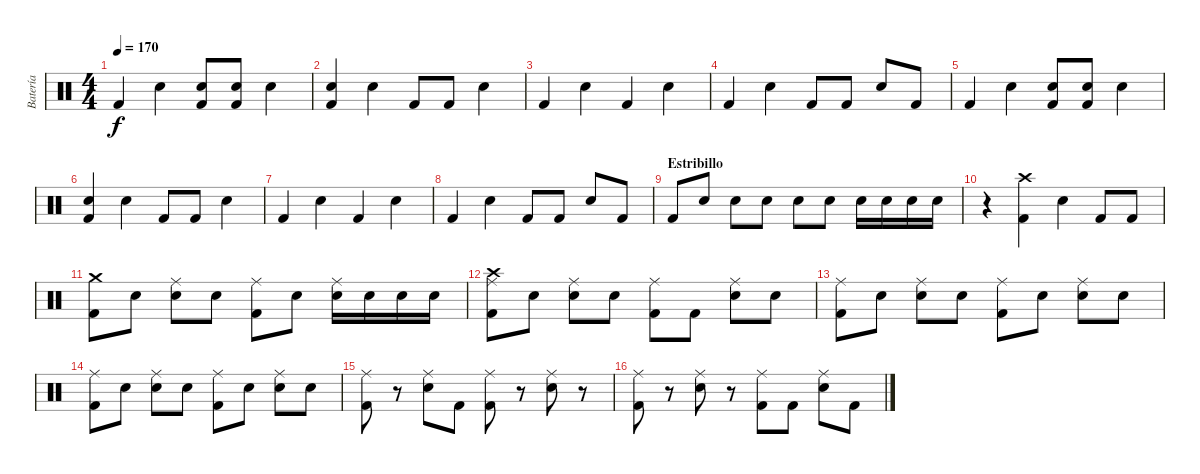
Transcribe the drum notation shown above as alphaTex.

\track ("Batería" "Batería") {instrument percussion}
\staff {score}
\articulation defaults
\ts (4 4)
\tempo 170
\clef neutral
\ks c "Kick (hit) 2".4{dy f} "Snare (hit) 2".4
("Kick (hit) 2" "Snare (hit)").8 ("Kick (hit) 2" "Snare (hit)").8 "Snare (hit) 2".4 |
("Kick (hit) 2" "Snare (hit)").4 "Snare (hit) 2".4 "Kick (hit) 2".8 "Kick (hit) 2".8 "Snare (hit) 2".4 |
"Kick (hit) 2".4 "Snare (hit) 2".4 "Kick (hit) 2".4 "Snare (hit) 2".4 |
"Kick (hit) 2".4 "Snare (hit) 2".4 "Kick (hit) 2".8 "Kick (hit) 2".8 "Snare (hit) 2".8 "Kick (hit) 2".8 |
"Kick (hit) 2".4 "Snare (hit) 2".4 ("Kick (hit) 2" "Snare (hit)").8 ("Kick (hit) 2" "Snare (hit)").8 "Snare (hit) 2".4 |
("Kick (hit) 2" "Snare (hit)").4 "Snare (hit) 2".4 "Kick (hit) 2".8 "Kick (hit) 2".8 "Snare (hit) 2".4 |
"Kick (hit) 2".4 "Snare (hit) 2".4 "Kick (hit) 2".4 "Snare (hit) 2".4 |
"Kick (hit) 2".4 "Snare (hit) 2".4 "Kick (hit) 2".8 "Kick (hit) 2".8 "Snare (hit) 2".8 "Kick (hit) 2".8 |
\section ("" "Estribillo")
"Kick (hit) 2".8 "Snare (hit) 2".8 "Snare (hit)".8 "Snare (hit)".8 "Snare (hit) 2".8 "Snare (hit) 2".8 "Snare (hit) 2".16 "Snare (hit) 2".16 "Snare (hit) 2".16 "Snare (hit) 2".16 |
r.4 ("Crash high (hit)" "Kick (hit) 2").4 "Snare (hit) 2".4 "Kick (hit) 2".8 "Kick (hit) 2".8 |
("Crash medium (hit)" "Kick (hit) 2").8 "Snare (hit)".8 ("Ride (middle)" "Snare (hit) 2").8 "Snare (hit)".8 ("Ride (middle)" "Kick (hit) 2").8 "Snare (hit) 2".8 ("Ride (middle)" "Snare (hit)").16 "Snare (hit) 2".16 "Snare (hit) 2".16 "Snare (hit) 2".16 |
("Crash high (hit)" "Ride (middle)" "Kick (hit) 2").8 "Snare (hit)".8 ("Ride (middle)" "Snare (hit) 2").8 "Snare (hit)".8 ("Ride (middle)" "Kick (hit) 2").8 "Kick (hit) 2".8 ("Ride (middle)" "Snare (hit) 2").8 "Snare (hit)".8 |
("Ride (middle)" "Kick (hit) 2").8 "Snare (hit)".8 ("Ride (middle)" "Snare (hit) 2").8 "Snare (hit)".8 ("Ride (middle)" "Kick (hit) 2").8 "Snare (hit)".8 ("Ride (middle)" "Snare (hit) 2").8 "Snare (hit)".8 |
("Ride (middle)" "Kick (hit) 2").8 "Snare (hit)".8 ("Ride (middle)" "Snare (hit) 2").8 "Snare (hit)".8 ("Ride (middle)" "Kick (hit) 2").8 "Snare (hit)".8 ("Ride (middle)" "Snare (hit) 2").8 "Snare (hit)".8 |
("Ride (middle)" "Kick (hit) 2").8 r.8 ("Ride (middle)" "Snare (hit) 2").8 "Kick (hit) 2".8 ("Ride (middle)" "Kick (hit) 2").8 r.8 ("Ride (middle)" "Snare (hit) 2").8 r.8 |
("Ride (middle)" "Kick (hit) 2").8 r.8 ("Ride (middle)" "Snare (hit) 2").8 r.8 ("Ride (middle)" "Kick (hit) 2").8 "Kick (hit) 2".8 ("Ride (middle)" "Snare (hit) 2").8 "Kick (hit) 2".8
